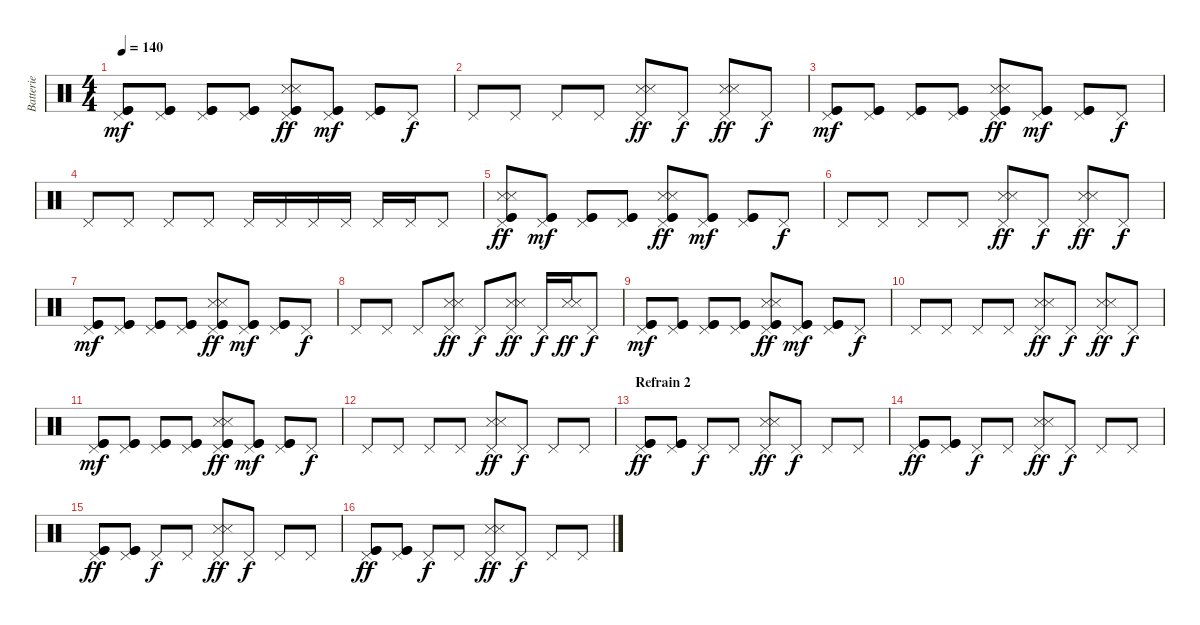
\track ("Batterie " "Batterie ") {instrument percussion}
\staff {score}
\articulation defaults
\ts (4 4)
\tempo 140
\clef neutral
\ks c
("Kick (hit)" "Kick (hit)" "Pedal Hi-Hat (hit)").8{dy mf} ("Kick (hit)" "Kick (hit)" "Pedal Hi-Hat (hit)").8 ("Kick (hit)" "Kick (hit)" "Pedal Hi-Hat (hit)").8 ("Kick (hit)" "Kick (hit)" "Pedal Hi-Hat (hit)").8 ("Kick (hit)" "Kick (hit)" "Snare (side stick) 3" "Snare (side stick) 3" "Pedal Hi-Hat (hit)").8{dy ff} ("Kick (hit)" "Kick (hit)" "Pedal Hi-Hat (hit)").8{dy mf} ("Kick (hit)" "Kick (hit)" "Pedal Hi-Hat (hit)").8 "Pedal Hi-Hat (hit)".8{dy f} |
"Pedal Hi-Hat (hit)".8 "Pedal Hi-Hat (hit)".8 "Pedal Hi-Hat (hit)".8 "Pedal Hi-Hat (hit)".8 ("Snare (side stick) 3" "Snare (side stick) 3" "Pedal Hi-Hat (hit)").8{dy ff} "Pedal Hi-Hat (hit)".8{dy f} ("Snare (side stick) 3" "Snare (side stick) 3" "Pedal Hi-Hat (hit)").8{dy ff} "Pedal Hi-Hat (hit)".8{dy f} |
("Kick (hit)" "Kick (hit)" "Pedal Hi-Hat (hit)").8{dy mf} ("Kick (hit)" "Kick (hit)" "Pedal Hi-Hat (hit)").8 ("Kick (hit)" "Kick (hit)" "Pedal Hi-Hat (hit)").8 ("Kick (hit)" "Kick (hit)" "Pedal Hi-Hat (hit)").8 ("Kick (hit)" "Kick (hit)" "Snare (side stick) 3" "Snare (side stick) 3" "Pedal Hi-Hat (hit)").8{dy ff} ("Kick (hit)" "Kick (hit)" "Pedal Hi-Hat (hit)").8{dy mf} ("Kick (hit)" "Kick (hit)" "Pedal Hi-Hat (hit)").8 "Pedal Hi-Hat (hit)".8{dy f} |
"Pedal Hi-Hat (hit)".8 "Pedal Hi-Hat (hit)".8 "Pedal Hi-Hat (hit)".8 "Pedal Hi-Hat (hit)".8 "Pedal Hi-Hat (hit)".16 "Pedal Hi-Hat (hit)".16 "Pedal Hi-Hat (hit)".16 "Pedal Hi-Hat (hit)".16 "Pedal Hi-Hat (hit)".16 "Pedal Hi-Hat (hit)".16 "Pedal Hi-Hat (hit)".8 |
("Kick (hit)" "Kick (hit)" "Snare (side stick) 3" "Snare (side stick) 3" "Pedal Hi-Hat (hit)").8{dy ff} ("Kick (hit)" "Kick (hit)" "Pedal Hi-Hat (hit)").8{dy mf} ("Kick (hit)" "Kick (hit)" "Pedal Hi-Hat (hit)").8 ("Kick (hit)" "Kick (hit)" "Pedal Hi-Hat (hit)").8 ("Kick (hit)" "Kick (hit)" "Snare (side stick) 3" "Snare (side stick) 3" "Pedal Hi-Hat (hit)").8{dy ff} ("Kick (hit)" "Kick (hit)" "Pedal Hi-Hat (hit)").8{dy mf} ("Kick (hit)" "Kick (hit)" "Pedal Hi-Hat (hit)").8 "Pedal Hi-Hat (hit)".8{dy f} |
"Pedal Hi-Hat (hit)".8 "Pedal Hi-Hat (hit)".8 "Pedal Hi-Hat (hit)".8 "Pedal Hi-Hat (hit)".8 ("Snare (side stick) 3" "Snare (side stick) 3" "Pedal Hi-Hat (hit)").8{dy ff} "Pedal Hi-Hat (hit)".8{dy f} ("Snare (side stick) 3" "Snare (side stick) 3" "Pedal Hi-Hat (hit)").8{dy ff} "Pedal Hi-Hat (hit)".8{dy f} |
("Kick (hit)" "Kick (hit)" "Pedal Hi-Hat (hit)").8{dy mf} ("Kick (hit)" "Kick (hit)" "Pedal Hi-Hat (hit)").8 ("Kick (hit)" "Kick (hit)" "Pedal Hi-Hat (hit)").8 ("Kick (hit)" "Kick (hit)" "Pedal Hi-Hat (hit)").8 ("Kick (hit)" "Kick (hit)" "Snare (side stick) 3" "Snare (side stick) 3" "Pedal Hi-Hat (hit)").8{dy ff} ("Kick (hit)" "Kick (hit)" "Pedal Hi-Hat (hit)").8{dy mf} ("Kick (hit)" "Kick (hit)" "Pedal Hi-Hat (hit)").8 "Pedal Hi-Hat (hit)".8{dy f} |
"Pedal Hi-Hat (hit)".8 "Pedal Hi-Hat (hit)".8 "Pedal Hi-Hat (hit)".8 ("Snare (side stick) 3" "Snare (side stick) 3" "Pedal Hi-Hat (hit)").8{dy ff} "Pedal Hi-Hat (hit)".8{dy f} ("Snare (side stick) 3" "Snare (side stick) 3" "Pedal Hi-Hat (hit)").8{dy ff} "Pedal Hi-Hat (hit)".16{dy f} ("Snare (side stick) 3" "Snare (side stick) 3").16{dy ff} "Pedal Hi-Hat (hit)".8{dy f} |
("Kick (hit)" "Kick (hit)" "Pedal Hi-Hat (hit)").8{dy mf} ("Kick (hit)" "Kick (hit)" "Pedal Hi-Hat (hit)").8 ("Kick (hit)" "Kick (hit)" "Pedal Hi-Hat (hit)").8 ("Kick (hit)" "Kick (hit)" "Pedal Hi-Hat (hit)").8 ("Kick (hit)" "Kick (hit)" "Snare (side stick) 3" "Snare (side stick) 3" "Pedal Hi-Hat (hit)").8{dy ff} ("Kick (hit)" "Kick (hit)" "Pedal Hi-Hat (hit)").8{dy mf} ("Kick (hit)" "Kick (hit)" "Pedal Hi-Hat (hit)").8 "Pedal Hi-Hat (hit)".8{dy f} |
"Pedal Hi-Hat (hit)".8 "Pedal Hi-Hat (hit)".8 "Pedal Hi-Hat (hit)".8 "Pedal Hi-Hat (hit)".8 ("Snare (side stick) 3" "Snare (side stick) 3" "Pedal Hi-Hat (hit)").8{dy ff} "Pedal Hi-Hat (hit)".8{dy f} ("Snare (side stick) 3" "Snare (side stick) 3" "Pedal Hi-Hat (hit)").8{dy ff} "Pedal Hi-Hat (hit)".8{dy f} |
("Kick (hit)" "Kick (hit)" "Pedal Hi-Hat (hit)").8{dy mf} ("Kick (hit)" "Kick (hit)" "Pedal Hi-Hat (hit)").8 ("Kick (hit)" "Kick (hit)" "Pedal Hi-Hat (hit)").8 ("Kick (hit)" "Kick (hit)" "Pedal Hi-Hat (hit)").8 ("Kick (hit)" "Kick (hit)" "Snare (side stick) 3" "Snare (side stick) 3" "Pedal Hi-Hat (hit)").8{dy ff} ("Kick (hit)" "Kick (hit)" "Pedal Hi-Hat (hit)").8{dy mf} ("Kick (hit)" "Kick (hit)" "Pedal Hi-Hat (hit)").8 "Pedal Hi-Hat (hit)".8{dy f} |
"Pedal Hi-Hat (hit)".8 "Pedal Hi-Hat (hit)".8 "Pedal Hi-Hat (hit)".8 "Pedal Hi-Hat (hit)".8 ("Snare (side stick) 3" "Snare (side stick) 3" "Pedal Hi-Hat (hit)").8{dy ff} "Pedal Hi-Hat (hit)".8{dy f} "Pedal Hi-Hat (hit)".8 "Pedal Hi-Hat (hit)".8 |
\section ("" "Refrain 2")
("Kick (hit)" "Kick (hit)" "Pedal Hi-Hat (hit)").8{dy ff} ("Kick (hit)" "Kick (hit)" "Pedal Hi-Hat (hit)").8 "Pedal Hi-Hat (hit)".8{dy f} "Pedal Hi-Hat (hit)".8 ("Snare (side stick) 3" "Snare (side stick) 3" "Pedal Hi-Hat (hit)").8{dy ff} "Pedal Hi-Hat (hit)".8{dy f} "Pedal Hi-Hat (hit)".8 "Pedal Hi-Hat (hit)".8 |
("Kick (hit)" "Kick (hit)" "Pedal Hi-Hat (hit)").8{dy ff} ("Kick (hit)" "Kick (hit)" "Pedal Hi-Hat (hit)").8 "Pedal Hi-Hat (hit)".8{dy f} "Pedal Hi-Hat (hit)".8 ("Snare (side stick) 3" "Snare (side stick) 3" "Pedal Hi-Hat (hit)").8{dy ff} "Pedal Hi-Hat (hit)".8{dy f} "Pedal Hi-Hat (hit)".8 "Pedal Hi-Hat (hit)".8 |
("Kick (hit)" "Kick (hit)" "Pedal Hi-Hat (hit)").8{dy ff} ("Kick (hit)" "Kick (hit)" "Pedal Hi-Hat (hit)").8 "Pedal Hi-Hat (hit)".8{dy f} "Pedal Hi-Hat (hit)".8 ("Snare (side stick) 3" "Snare (side stick) 3" "Pedal Hi-Hat (hit)").8{dy ff} "Pedal Hi-Hat (hit)".8{dy f} "Pedal Hi-Hat (hit)".8 "Pedal Hi-Hat (hit)".8 |
("Kick (hit)" "Kick (hit)" "Pedal Hi-Hat (hit)").8{dy ff} ("Kick (hit)" "Kick (hit)" "Pedal Hi-Hat (hit)").8 "Pedal Hi-Hat (hit)".8{dy f} "Pedal Hi-Hat (hit)".8 ("Snare (side stick) 3" "Snare (side stick) 3" "Pedal Hi-Hat (hit)").8{dy ff} "Pedal Hi-Hat (hit)".8{dy f} "Pedal Hi-Hat (hit)".8 "Pedal Hi-Hat (hit)".8
